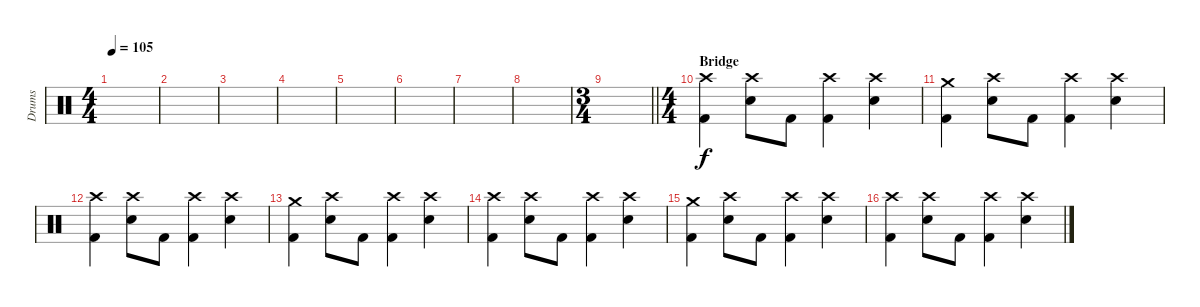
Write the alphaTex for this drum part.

\track ("Drums" "Drums") {instrument percussion}
\staff {score}
\articulation defaults
\ts (4 4)
\tempo 105
\clef neutral
\ks c
|
|
|
|
|
|
|
|
\ts (3 4)
\barLineRight lightlight
|
\ts (4 4)
\section ("" "Bridge")
("Crash high (hit)" "Kick (hit) 2").4 ("Crash high (hit)" "Electric Snare (hit)").8 "Kick (hit) 2".8 ("Crash high (hit)" "Kick (hit) 2").4 ("Crash high (hit)" "Electric Snare (hit)").4 |
("Crash medium (hit)" "Kick (hit) 2").4 ("Crash high (hit)" "Electric Snare (hit)").8 "Kick (hit) 2".8 ("Crash high (hit)" "Kick (hit) 2").4 ("Crash high (hit)" "Electric Snare (hit)").4 |
("Crash high (hit)" "Kick (hit) 2").4 ("Crash high (hit)" "Electric Snare (hit)").8 "Kick (hit) 2".8 ("Crash high (hit)" "Kick (hit) 2").4 ("Crash high (hit)" "Electric Snare (hit)").4 |
("Crash medium (hit)" "Kick (hit) 2").4 ("Crash high (hit)" "Electric Snare (hit)").8 "Kick (hit) 2".8 ("Crash high (hit)" "Kick (hit) 2").4 ("Crash high (hit)" "Electric Snare (hit)").4 |
("Crash high (hit)" "Kick (hit) 2").4 ("Crash high (hit)" "Electric Snare (hit)").8 "Kick (hit) 2".8 ("Crash high (hit)" "Kick (hit) 2").4 ("Crash high (hit)" "Electric Snare (hit)").4 |
("Crash medium (hit)" "Kick (hit) 2").4 ("Crash high (hit)" "Electric Snare (hit)").8 "Kick (hit) 2".8 ("Crash high (hit)" "Kick (hit) 2").4 ("Crash high (hit)" "Electric Snare (hit)").4 |
("Crash high (hit)" "Kick (hit) 2").4 ("Crash high (hit)" "Electric Snare (hit)").8 "Kick (hit) 2".8 ("Crash high (hit)" "Kick (hit) 2").4 ("Crash high (hit)" "Electric Snare (hit)").4
